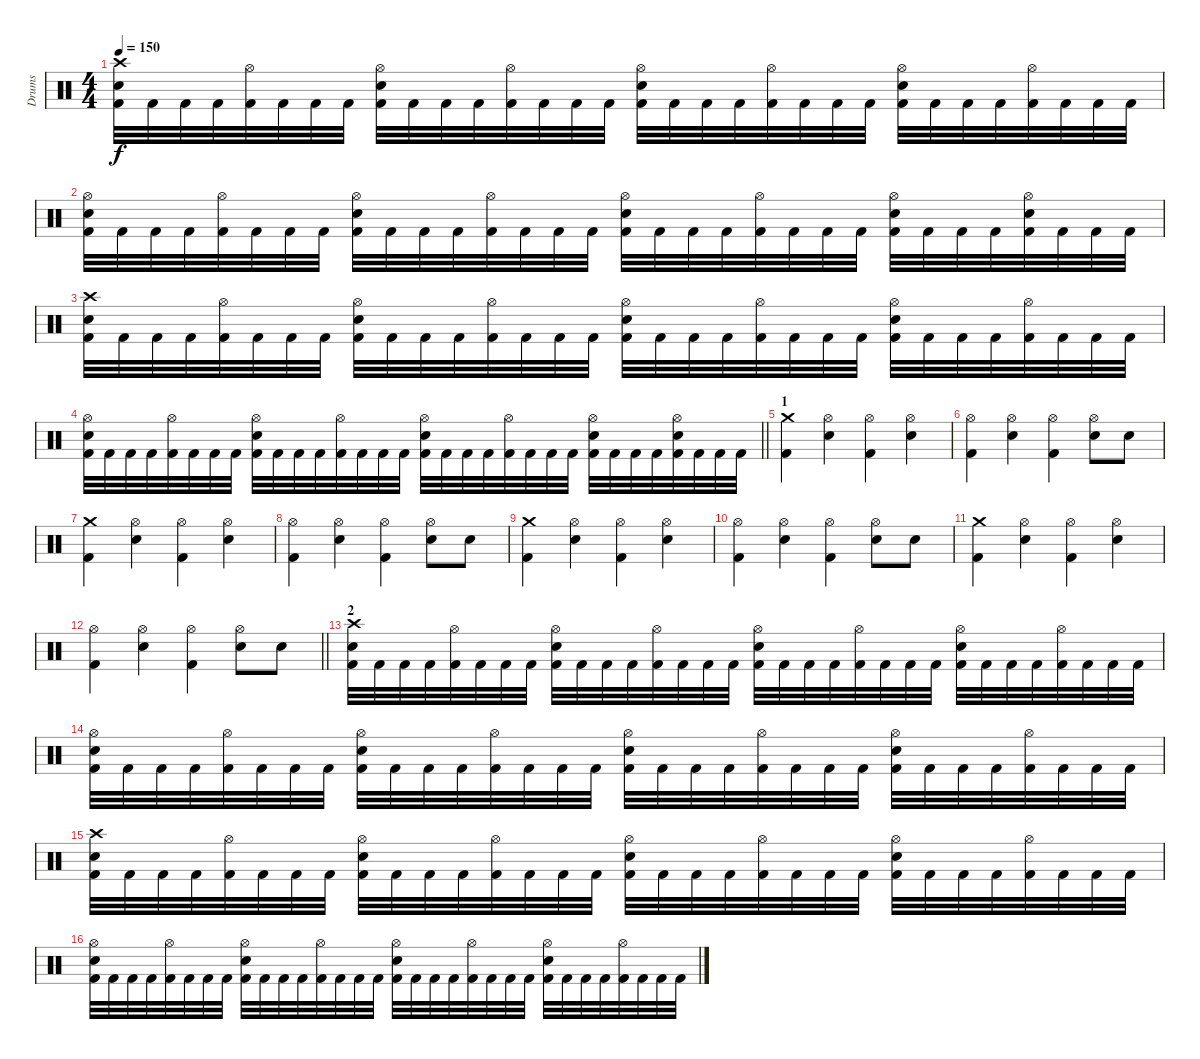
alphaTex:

\track ("Drums" "Drums") {instrument percussion}
\staff {score}
\articulation defaults
\ts (4 4)
\tempo 150
\clef neutral
\ks c
("Crash high (hit)" "Snare (hit) 2" "Kick (hit) 2").32{dy f} "Kick (hit) 2".32 "Kick (hit) 2".32 "Kick (hit) 2".32 ("Hi-Hat (open)" "Kick (hit) 2").32 "Kick (hit) 2".32 "Kick (hit) 2".32 "Kick (hit) 2".32 ("Hi-Hat (open)" "Snare (hit) 2" "Kick (hit) 2").32 "Kick (hit) 2".32 "Kick (hit) 2".32 "Kick (hit) 2".32 ("Hi-Hat (open)" "Kick (hit) 2").32 "Kick (hit) 2".32 "Kick (hit) 2".32 "Kick (hit) 2".32 ("Hi-Hat (open)" "Snare (hit) 2" "Kick (hit) 2").32 "Kick (hit) 2".32 "Kick (hit) 2".32 "Kick (hit) 2".32 ("Hi-Hat (open)" "Kick (hit) 2").32 "Kick (hit) 2".32 "Kick (hit) 2".32 "Kick (hit) 2".32 ("Hi-Hat (open)" "Snare (hit) 2" "Kick (hit) 2").32 "Kick (hit) 2".32 "Kick (hit) 2".32 "Kick (hit) 2".32 ("Hi-Hat (open)" "Kick (hit) 2").32 "Kick (hit) 2".32 "Kick (hit) 2".32 "Kick (hit) 2".32 |
("Hi-Hat (open)" "Snare (hit) 2" "Kick (hit) 2").32 "Kick (hit) 2".32 "Kick (hit) 2".32 "Kick (hit) 2".32 ("Hi-Hat (open)" "Kick (hit) 2").32 "Kick (hit) 2".32 "Kick (hit) 2".32 "Kick (hit) 2".32 ("Hi-Hat (open)" "Snare (hit) 2" "Kick (hit) 2").32 "Kick (hit) 2".32 "Kick (hit) 2".32 "Kick (hit) 2".32 ("Hi-Hat (open)" "Kick (hit) 2").32 "Kick (hit) 2".32 "Kick (hit) 2".32 "Kick (hit) 2".32 ("Hi-Hat (open)" "Snare (hit) 2" "Kick (hit) 2").32 "Kick (hit) 2".32 "Kick (hit) 2".32 "Kick (hit) 2".32 ("Hi-Hat (open)" "Kick (hit) 2").32 "Kick (hit) 2".32 "Kick (hit) 2".32 "Kick (hit) 2".32 ("Hi-Hat (open)" "Snare (hit) 2" "Kick (hit) 2").32 "Kick (hit) 2".32 "Kick (hit) 2".32 "Kick (hit) 2".32 ("Hi-Hat (open)" "Snare (hit) 2" "Kick (hit) 2").32 "Kick (hit) 2".32 "Kick (hit) 2".32 "Kick (hit) 2".32 |
("Crash high (hit)" "Snare (hit) 2" "Kick (hit) 2").32 "Kick (hit) 2".32 "Kick (hit) 2".32 "Kick (hit) 2".32 ("Hi-Hat (open)" "Kick (hit) 2").32 "Kick (hit) 2".32 "Kick (hit) 2".32 "Kick (hit) 2".32 ("Hi-Hat (open)" "Snare (hit) 2" "Kick (hit) 2").32 "Kick (hit) 2".32 "Kick (hit) 2".32 "Kick (hit) 2".32 ("Hi-Hat (open)" "Kick (hit) 2").32 "Kick (hit) 2".32 "Kick (hit) 2".32 "Kick (hit) 2".32 ("Hi-Hat (open)" "Snare (hit) 2" "Kick (hit) 2").32 "Kick (hit) 2".32 "Kick (hit) 2".32 "Kick (hit) 2".32 ("Hi-Hat (open)" "Kick (hit) 2").32 "Kick (hit) 2".32 "Kick (hit) 2".32 "Kick (hit) 2".32 ("Hi-Hat (open)" "Snare (hit) 2" "Kick (hit) 2").32 "Kick (hit) 2".32 "Kick (hit) 2".32 "Kick (hit) 2".32 ("Hi-Hat (open)" "Kick (hit) 2").32 "Kick (hit) 2".32 "Kick (hit) 2".32 "Kick (hit) 2".32 |
\barLineRight lightlight
("Hi-Hat (open)" "Snare (hit) 2" "Kick (hit) 2").32 "Kick (hit) 2".32 "Kick (hit) 2".32 "Kick (hit) 2".32 ("Hi-Hat (open)" "Kick (hit) 2").32 "Kick (hit) 2".32 "Kick (hit) 2".32 "Kick (hit) 2".32 ("Hi-Hat (open)" "Snare (hit) 2" "Kick (hit) 2").32 "Kick (hit) 2".32 "Kick (hit) 2".32 "Kick (hit) 2".32 ("Hi-Hat (open)" "Kick (hit) 2").32 "Kick (hit) 2".32 "Kick (hit) 2".32 "Kick (hit) 2".32 ("Hi-Hat (open)" "Snare (hit) 2" "Kick (hit) 2").32 "Kick (hit) 2".32 "Kick (hit) 2".32 "Kick (hit) 2".32 ("Hi-Hat (open)" "Kick (hit) 2").32 "Kick (hit) 2".32 "Kick (hit) 2".32 "Kick (hit) 2".32 ("Hi-Hat (open)" "Snare (hit) 2" "Kick (hit) 2").32 "Kick (hit) 2".32 "Kick (hit) 2".32 "Kick (hit) 2".32 ("Hi-Hat (open)" "Snare (hit) 2" "Kick (hit) 2").32 "Kick (hit) 2".32 "Kick (hit) 2".32 "Kick (hit) 2".32 |
\section ("" "1")
("Crash medium (hit)" "Kick (hit) 2").4 ("Hi-Hat (open)" "Snare (hit) 2").4 ("Hi-Hat (open)" "Kick (hit) 2").4 ("Hi-Hat (open)" "Snare (hit) 2").4 |
("Hi-Hat (open)" "Kick (hit) 2").4 ("Hi-Hat (open)" "Snare (hit) 2").4 ("Hi-Hat (open)" "Kick (hit) 2").4 ("Hi-Hat (open)" "Snare (hit) 2").8 "Snare (hit) 2".8 |
("Crash medium (hit)" "Kick (hit) 2").4 ("Hi-Hat (open)" "Snare (hit) 2").4 ("Hi-Hat (open)" "Kick (hit) 2").4 ("Hi-Hat (open)" "Snare (hit) 2").4 |
("Hi-Hat (open)" "Kick (hit) 2").4 ("Hi-Hat (open)" "Snare (hit) 2").4 ("Hi-Hat (open)" "Kick (hit) 2").4 ("Hi-Hat (open)" "Snare (hit) 2").8 "Snare (hit) 2".8 |
("Crash medium (hit)" "Kick (hit) 2").4 ("Hi-Hat (open)" "Snare (hit) 2").4 ("Hi-Hat (open)" "Kick (hit) 2").4 ("Hi-Hat (open)" "Snare (hit) 2").4 |
("Hi-Hat (open)" "Kick (hit) 2").4 ("Hi-Hat (open)" "Snare (hit) 2").4 ("Hi-Hat (open)" "Kick (hit) 2").4 ("Hi-Hat (open)" "Snare (hit) 2").8 "Snare (hit) 2".8 |
("Crash medium (hit)" "Kick (hit) 2").4 ("Hi-Hat (open)" "Snare (hit) 2").4 ("Hi-Hat (open)" "Kick (hit) 2").4 ("Hi-Hat (open)" "Snare (hit) 2").4 |
\barLineRight lightlight
("Hi-Hat (open)" "Kick (hit) 2").4 ("Hi-Hat (open)" "Snare (hit) 2").4 ("Hi-Hat (open)" "Kick (hit) 2").4 ("Hi-Hat (open)" "Snare (hit) 2").8 "Snare (hit) 2".8 |
\section ("" "2")
("Crash high (hit)" "Snare (hit) 2" "Kick (hit) 2").32 "Kick (hit) 2".32 "Kick (hit) 2".32 "Kick (hit) 2".32 ("Hi-Hat (open)" "Kick (hit) 2").32 "Kick (hit) 2".32 "Kick (hit) 2".32 "Kick (hit) 2".32 ("Hi-Hat (open)" "Snare (hit) 2" "Kick (hit) 2").32 "Kick (hit) 2".32 "Kick (hit) 2".32 "Kick (hit) 2".32 ("Hi-Hat (open)" "Kick (hit) 2").32 "Kick (hit) 2".32 "Kick (hit) 2".32 "Kick (hit) 2".32 ("Hi-Hat (open)" "Snare (hit) 2" "Kick (hit) 2").32 "Kick (hit) 2".32 "Kick (hit) 2".32 "Kick (hit) 2".32 ("Hi-Hat (open)" "Kick (hit) 2").32 "Kick (hit) 2".32 "Kick (hit) 2".32 "Kick (hit) 2".32 ("Hi-Hat (open)" "Snare (hit) 2" "Kick (hit) 2").32 "Kick (hit) 2".32 "Kick (hit) 2".32 "Kick (hit) 2".32 ("Hi-Hat (open)" "Kick (hit) 2").32 "Kick (hit) 2".32 "Kick (hit) 2".32 "Kick (hit) 2".32 |
("Hi-Hat (open)" "Snare (hit) 2" "Kick (hit) 2").32 "Kick (hit) 2".32 "Kick (hit) 2".32 "Kick (hit) 2".32 ("Hi-Hat (open)" "Kick (hit) 2").32 "Kick (hit) 2".32 "Kick (hit) 2".32 "Kick (hit) 2".32 ("Hi-Hat (open)" "Snare (hit) 2" "Kick (hit) 2").32 "Kick (hit) 2".32 "Kick (hit) 2".32 "Kick (hit) 2".32 ("Hi-Hat (open)" "Kick (hit) 2").32 "Kick (hit) 2".32 "Kick (hit) 2".32 "Kick (hit) 2".32 ("Hi-Hat (open)" "Snare (hit) 2" "Kick (hit) 2").32 "Kick (hit) 2".32 "Kick (hit) 2".32 "Kick (hit) 2".32 ("Hi-Hat (open)" "Kick (hit) 2").32 "Kick (hit) 2".32 "Kick (hit) 2".32 "Kick (hit) 2".32 ("Hi-Hat (open)" "Snare (hit) 2" "Kick (hit) 2").32 "Kick (hit) 2".32 "Kick (hit) 2".32 "Kick (hit) 2".32 ("Hi-Hat (open)" "Kick (hit) 2").32 "Kick (hit) 2".32 "Kick (hit) 2".32 "Kick (hit) 2".32 |
("Crash high (hit)" "Snare (hit) 2" "Kick (hit) 2").32 "Kick (hit) 2".32 "Kick (hit) 2".32 "Kick (hit) 2".32 ("Hi-Hat (open)" "Kick (hit) 2").32 "Kick (hit) 2".32 "Kick (hit) 2".32 "Kick (hit) 2".32 ("Hi-Hat (open)" "Snare (hit) 2" "Kick (hit) 2").32 "Kick (hit) 2".32 "Kick (hit) 2".32 "Kick (hit) 2".32 ("Hi-Hat (open)" "Kick (hit) 2").32 "Kick (hit) 2".32 "Kick (hit) 2".32 "Kick (hit) 2".32 ("Hi-Hat (open)" "Snare (hit) 2" "Kick (hit) 2").32 "Kick (hit) 2".32 "Kick (hit) 2".32 "Kick (hit) 2".32 ("Hi-Hat (open)" "Kick (hit) 2").32 "Kick (hit) 2".32 "Kick (hit) 2".32 "Kick (hit) 2".32 ("Hi-Hat (open)" "Snare (hit) 2" "Kick (hit) 2").32 "Kick (hit) 2".32 "Kick (hit) 2".32 "Kick (hit) 2".32 ("Hi-Hat (open)" "Kick (hit) 2").32 "Kick (hit) 2".32 "Kick (hit) 2".32 "Kick (hit) 2".32 |
("Hi-Hat (open)" "Snare (hit) 2" "Kick (hit) 2").32 "Kick (hit) 2".32 "Kick (hit) 2".32 "Kick (hit) 2".32 ("Hi-Hat (open)" "Kick (hit) 2").32 "Kick (hit) 2".32 "Kick (hit) 2".32 "Kick (hit) 2".32 ("Hi-Hat (open)" "Snare (hit) 2" "Kick (hit) 2").32 "Kick (hit) 2".32 "Kick (hit) 2".32 "Kick (hit) 2".32 ("Hi-Hat (open)" "Kick (hit) 2").32 "Kick (hit) 2".32 "Kick (hit) 2".32 "Kick (hit) 2".32 ("Hi-Hat (open)" "Snare (hit) 2" "Kick (hit) 2").32 "Kick (hit) 2".32 "Kick (hit) 2".32 "Kick (hit) 2".32 ("Hi-Hat (open)" "Kick (hit) 2").32 "Kick (hit) 2".32 "Kick (hit) 2".32 "Kick (hit) 2".32 ("Hi-Hat (open)" "Snare (hit) 2" "Kick (hit) 2").32 "Kick (hit) 2".32 "Kick (hit) 2".32 "Kick (hit) 2".32 ("Hi-Hat (open)" "Kick (hit) 2").32 "Kick (hit) 2".32 "Kick (hit) 2".32 "Kick (hit) 2".32
